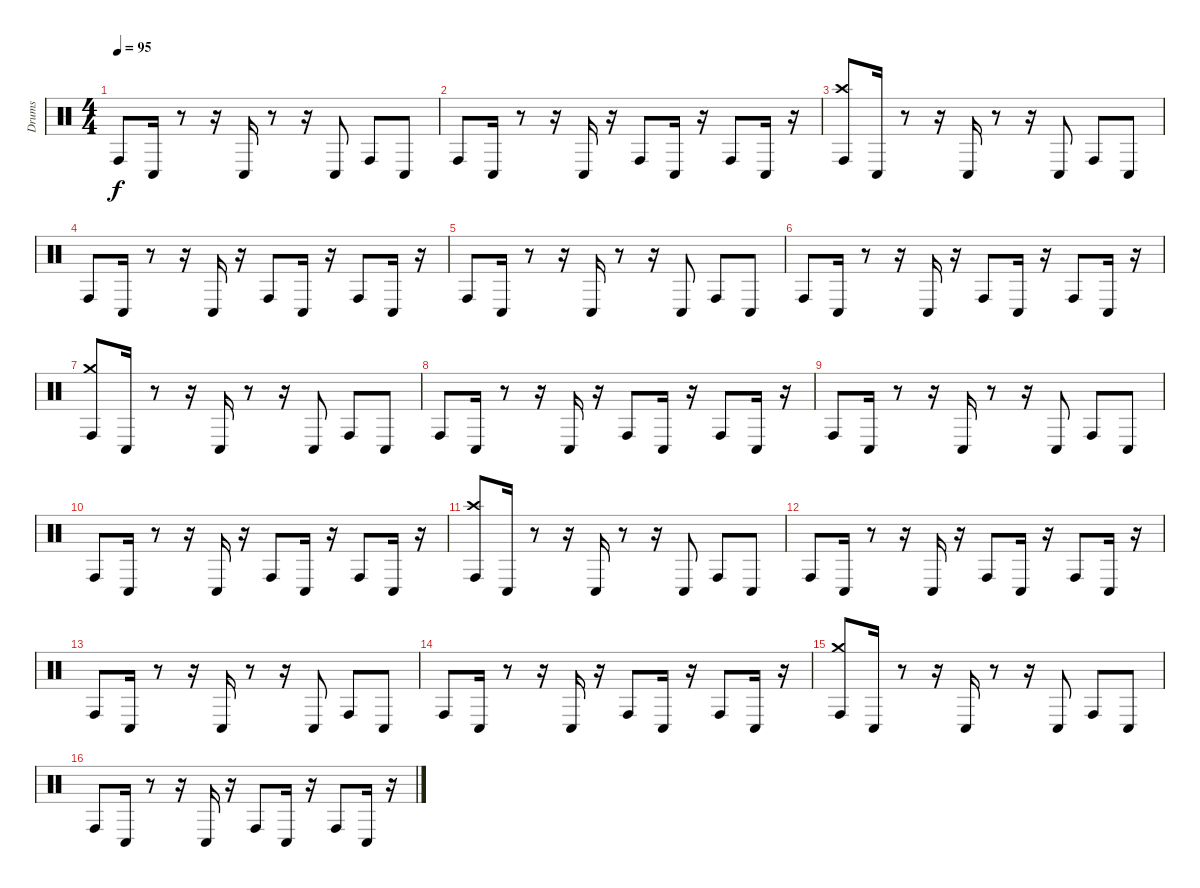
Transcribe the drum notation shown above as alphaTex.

\track ("Drums" "Drums") {instrument percussion}
\staff {score}
\articulation defaults
\ts (4 4)
\tempo 95
\clef neutral
\ks c "Conga high (hit)".8{dy f} "Conga low (hit)".16
r.8 r.16 "Conga low (hit)".16 r.8 r.16 "Conga low (hit)".8 "Conga high (hit)".8 "Conga low (hit)".8 |
"Conga high (hit)".8 "Conga low (hit)".16 r.8 r.16 "Conga low (hit)".16 r.16 "Conga high (hit)".8 "Conga low (hit)".16 r.16 "Conga high (hit)".8 "Conga low (hit)".16 r.16 |
("Conga high (hit)" "Crash high (hit)").8 "Conga low (hit)".16 r.8 r.16 "Conga low (hit)".16 r.8 r.16 "Conga low (hit)".8 "Conga high (hit)".8 "Conga low (hit)".8 |
"Conga high (hit)".8 "Conga low (hit)".16 r.8 r.16 "Conga low (hit)".16 r.16 "Conga high (hit)".8 "Conga low (hit)".16 r.16 "Conga high (hit)".8 "Conga low (hit)".16 r.16 |
"Conga high (hit)".8 "Conga low (hit)".16 r.8 r.16 "Conga low (hit)".16 r.8 r.16 "Conga low (hit)".8 "Conga high (hit)".8 "Conga low (hit)".8 |
"Conga high (hit)".8 "Conga low (hit)".16 r.8 r.16 "Conga low (hit)".16 r.16 "Conga high (hit)".8 "Conga low (hit)".16 r.16 "Conga high (hit)".8 "Conga low (hit)".16 r.16 |
("Conga high (hit)" "Crash medium (hit)").8 "Conga low (hit)".16 r.8 r.16 "Conga low (hit)".16 r.8 r.16 "Conga low (hit)".8 "Conga high (hit)".8 "Conga low (hit)".8 |
"Conga high (hit)".8 "Conga low (hit)".16 r.8 r.16 "Conga low (hit)".16 r.16 "Conga high (hit)".8 "Conga low (hit)".16 r.16 "Conga high (hit)".8 "Conga low (hit)".16 r.16 |
"Conga high (hit)".8 "Conga low (hit)".16 r.8 r.16 "Conga low (hit)".16 r.8 r.16 "Conga low (hit)".8 "Conga high (hit)".8 "Conga low (hit)".8 |
"Conga high (hit)".8 "Conga low (hit)".16 r.8 r.16 "Conga low (hit)".16 r.16 "Conga high (hit)".8 "Conga low (hit)".16 r.16 "Conga high (hit)".8 "Conga low (hit)".16 r.16 |
("Conga high (hit)" "Crash high (hit)").8 "Conga low (hit)".16 r.8 r.16 "Conga low (hit)".16 r.8 r.16 "Conga low (hit)".8 "Conga high (hit)".8 "Conga low (hit)".8 |
"Conga high (hit)".8 "Conga low (hit)".16 r.8 r.16 "Conga low (hit)".16 r.16 "Conga high (hit)".8 "Conga low (hit)".16 r.16 "Conga high (hit)".8 "Conga low (hit)".16 r.16 |
"Conga high (hit)".8 "Conga low (hit)".16 r.8 r.16 "Conga low (hit)".16 r.8 r.16 "Conga low (hit)".8 "Conga high (hit)".8 "Conga low (hit)".8 |
"Conga high (hit)".8 "Conga low (hit)".16 r.8 r.16 "Conga low (hit)".16 r.16 "Conga high (hit)".8 "Conga low (hit)".16 r.16 "Conga high (hit)".8 "Conga low (hit)".16 r.16 |
("Crash medium (hit)" "Conga high (hit)").8 "Conga low (hit)".16 r.8 r.16 "Conga low (hit)".16 r.8 r.16 "Conga low (hit)".8 "Conga high (hit)".8 "Conga low (hit)".8 |
"Conga high (hit)".8 "Conga low (hit)".16 r.8 r.16 "Conga low (hit)".16 r.16 "Conga high (hit)".8 "Conga low (hit)".16 r.16 "Conga high (hit)".8 "Conga low (hit)".16 r.16
